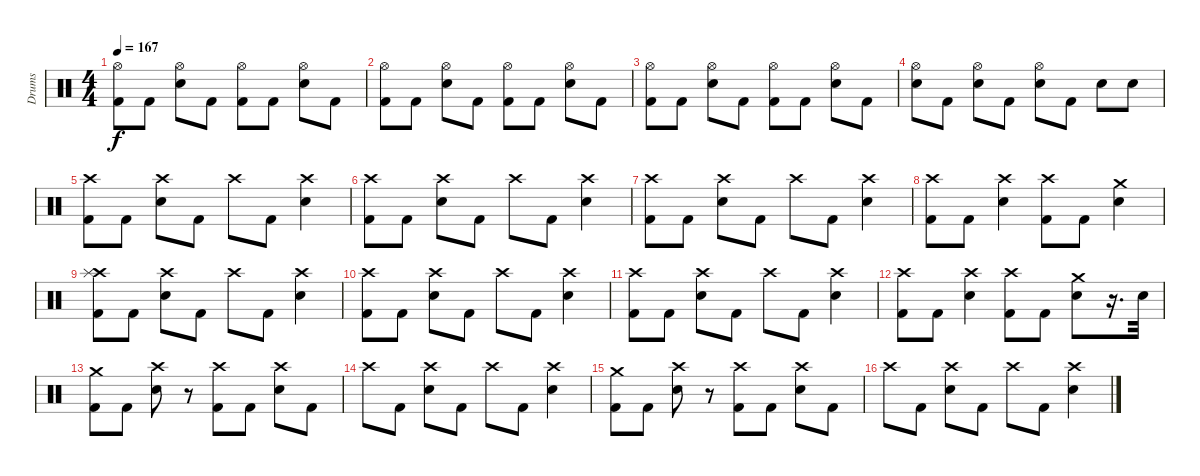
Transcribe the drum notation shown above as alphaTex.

\track ("Drums" "Drums") {instrument percussion}
\staff {score}
\articulation defaults
\ts (4 4)
\tempo 167
\clef neutral
\ks c
("Hi-Hat (open)" "Kick (hit) 2").8{dy f} "Kick (hit) 2".8 ("Hi-Hat (open)" "Snare (hit) 2").8 "Kick (hit) 2".8 ("Hi-Hat (open)" "Kick (hit) 2").8 "Kick (hit) 2".8 ("Hi-Hat (open)" "Snare (hit) 2").8 "Kick (hit) 2".8 |
("Hi-Hat (open)" "Kick (hit) 2").8 "Kick (hit) 2".8 ("Hi-Hat (open)" "Snare (hit) 2").8 "Kick (hit) 2".8 ("Hi-Hat (open)" "Kick (hit) 2").8 "Kick (hit) 2".8 ("Hi-Hat (open)" "Snare (hit) 2").8 "Kick (hit) 2".8 |
("Hi-Hat (open)" "Kick (hit) 2").8 "Kick (hit) 2".8 ("Hi-Hat (open)" "Snare (hit) 2").8 "Kick (hit) 2".8 ("Hi-Hat (open)" "Kick (hit) 2").8 "Kick (hit) 2".8 ("Hi-Hat (open)" "Snare (hit) 2").8 "Kick (hit) 2".8 |
("Hi-Hat (open)" "Snare (hit) 2").8 "Kick (hit) 2".8 ("Hi-Hat (open)" "Snare (hit) 2").8 "Kick (hit) 2".8 ("Hi-Hat (open)" "Snare (hit) 2").8 "Kick (hit) 2".8 "Snare (hit) 2".8 "Snare (hit) 2".8 |
("Crash high (hit)" "Kick (hit) 2").8 "Kick (hit) 2".8 ("Crash high (hit)" "Snare (hit) 2").8 "Kick (hit) 2".8 "Crash high (hit)".8 "Kick (hit) 2".8 ("Crash high (hit)" "Snare (hit) 2").4 |
("Crash high (hit)" "Kick (hit) 2").8 "Kick (hit) 2".8 ("Crash high (hit)" "Snare (hit) 2").8 "Kick (hit) 2".8 "Crash high (hit)".8 "Kick (hit) 2".8 ("Crash high (hit)" "Snare (hit) 2").4 |
("Crash high (hit)" "Kick (hit) 2").8 "Kick (hit) 2".8 ("Crash high (hit)" "Snare (hit) 2").8 "Kick (hit) 2".8 "Crash high (hit)".8 "Kick (hit) 2".8 ("Crash high (hit)" "Snare (hit) 2").4 |
("Crash high (hit)" "Kick (hit) 2").8 "Kick (hit) 2".8 ("Crash high (hit)" "Snare (hit) 2").4 ("Crash high (hit)" "Kick (hit) 2").8 "Kick (hit) 2".8 ("Crash medium (hit)" "Snare (hit) 2").4 |
("Crash high (hit)" "Splash (hit)" "Kick (hit) 2").8 "Kick (hit) 2".8 ("Crash high (hit)" "Snare (hit) 2").8 "Kick (hit) 2".8 "Crash high (hit)".8 "Kick (hit) 2".8 ("Crash high (hit)" "Snare (hit) 2").4 |
("Crash high (hit)" "Kick (hit) 2").8 "Kick (hit) 2".8 ("Crash high (hit)" "Snare (hit) 2").8 "Kick (hit) 2".8 "Crash high (hit)".8 "Kick (hit) 2".8 ("Crash high (hit)" "Snare (hit) 2").4 |
("Crash high (hit)" "Kick (hit) 2").8 "Kick (hit) 2".8 ("Crash high (hit)" "Snare (hit) 2").8 "Kick (hit) 2".8 "Crash high (hit)".8 "Kick (hit) 2".8 ("Crash high (hit)" "Snare (hit) 2").4 |
("Crash high (hit)" "Kick (hit) 2").8 "Kick (hit) 2".8 ("Crash high (hit)" "Snare (hit) 2").4 ("Crash high (hit)" "Kick (hit) 2").8 "Kick (hit) 2".8 ("Crash medium (hit)" "Snare (hit) 2").8 r.16{d} "Snare (hit) 2".32 |
("Crash medium (hit)" "Kick (hit) 2").8 "Kick (hit) 2".8 ("Crash high (hit)" "Snare (hit) 2").8 r.8 ("Crash high (hit)" "Kick (hit) 2").8 "Kick (hit) 2".8 ("Crash high (hit)" "Snare (hit) 2").8 "Kick (hit) 2".8 |
"Crash high (hit)".8 "Kick (hit) 2".8 ("Crash high (hit)" "Snare (hit) 2").8 "Kick (hit) 2".8 "Crash high (hit)".8 "Kick (hit) 2".8 ("Crash high (hit)" "Snare (hit) 2").4 |
("Crash medium (hit)" "Kick (hit) 2").8 "Kick (hit) 2".8 ("Crash high (hit)" "Snare (hit) 2").8 r.8 ("Crash high (hit)" "Kick (hit) 2").8 "Kick (hit) 2".8 ("Crash high (hit)" "Snare (hit) 2").8 "Kick (hit) 2".8 |
"Crash high (hit)".8 "Kick (hit) 2".8 ("Crash high (hit)" "Snare (hit) 2").8 "Kick (hit) 2".8 "Crash high (hit)".8 "Kick (hit) 2".8 ("Crash high (hit)" "Snare (hit) 2").4
